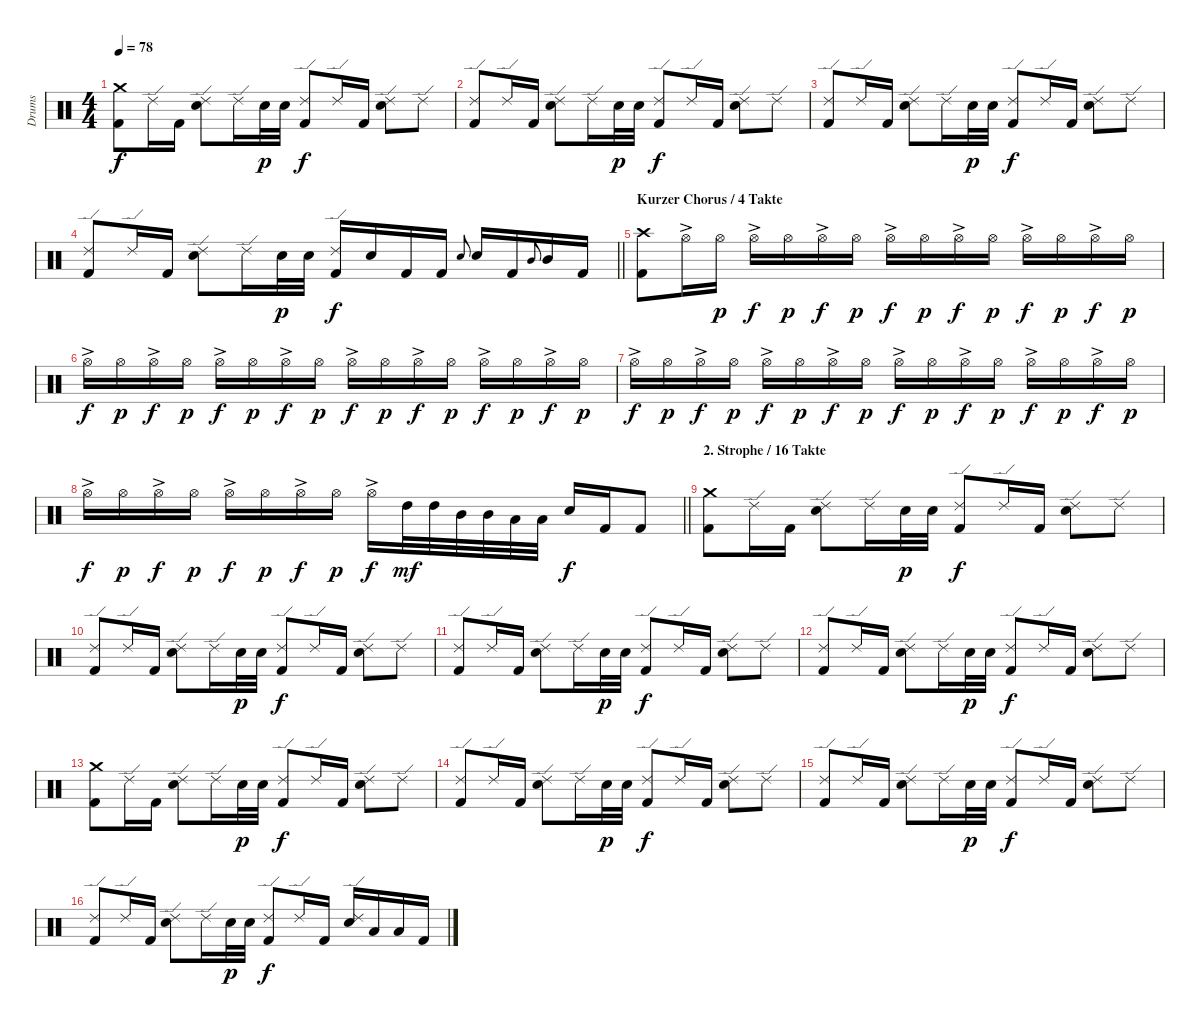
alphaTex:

\track ("Drums" "Drums") {instrument percussion}
\staff {score}
\articulation defaults
\ts (4 4)
\tempo 78
\clef neutral
\ks c
("Crash medium (hit)" "Kick (hit) 2").8{dy f} "Ride (edge) 2".16 "Kick (hit) 2".16 ("Ride (edge) 2" "Electric Snare (hit)").8 "Ride (edge) 2".16 "Electric Snare (hit)".32{dy p} "Electric Snare (hit)".32 ("Ride (edge) 2" "Kick (hit) 2").8{dy f} "Ride (edge) 2".16 "Kick (hit) 2".16 ("Ride (edge) 2" "Electric Snare (hit)").8 "Ride (edge) 2".8 |
("Ride (edge) 2" "Kick (hit) 2").8 "Ride (edge) 2".16 "Kick (hit) 2".16 ("Ride (edge) 2" "Electric Snare (hit)").8 "Ride (edge) 2".16 "Electric Snare (hit)".32{dy p} "Electric Snare (hit)".32 ("Ride (edge) 2" "Kick (hit) 2").8{dy f} "Ride (edge) 2".16 "Kick (hit) 2".16 ("Ride (edge) 2" "Electric Snare (hit)").8 "Ride (edge) 2".8 |
("Ride (edge) 2" "Kick (hit) 2").8 "Ride (edge) 2".16 "Kick (hit) 2".16 ("Ride (edge) 2" "Electric Snare (hit)").8 "Ride (edge) 2".16 "Electric Snare (hit)".32{dy p} "Electric Snare (hit)".32 ("Ride (edge) 2" "Kick (hit) 2").8{dy f} "Ride (edge) 2".16 "Kick (hit) 2".16 ("Ride (edge) 2" "Electric Snare (hit)").8 "Ride (edge) 2".8 |
\barLineRight lightlight
("Ride (edge) 2" "Kick (hit) 2").8 "Ride (edge) 2".16 "Kick (hit) 2".16 ("Ride (edge) 2" "Electric Snare (hit)").8 "Ride (edge) 2".16 "Electric Snare (hit)".32{dy p} "Electric Snare (hit)".32 ("Ride (edge) 2" "Kick (hit) 2").16{dy f} "Electric Snare (hit)".16 "Kick (hit) 2".16 "Kick (hit) 2".16 "Electric Snare (hit)".8{gr onbeat} "Electric Snare (hit)".16 "Kick (hit) 2".16 "Mid Tom (hit)".8{gr onbeat} "Mid Tom (hit)".16 "Kick (hit) 2".16 |
\section ("" "Kurzer Chorus / 4 Takte")
("Crash high (hit)" "Kick (hit) 2").8 "Hi-Hat (open)"{ac}.16 "Hi-Hat (open)".16{dy p} "Hi-Hat (open)"{ac}.16{dy f} "Hi-Hat (open)".16{dy p} "Hi-Hat (open)"{ac}.16{dy f} "Hi-Hat (open)".16{dy p} "Hi-Hat (open)"{ac}.16{dy f} "Hi-Hat (open)".16{dy p} "Hi-Hat (open)"{ac}.16{dy f} "Hi-Hat (open)".16{dy p} "Hi-Hat (open)"{ac}.16{dy f} "Hi-Hat (open)".16{dy p} "Hi-Hat (open)"{ac}.16{dy f} "Hi-Hat (open)".16{dy p} |
"Hi-Hat (open)"{ac}.16{dy f} "Hi-Hat (open)".16{dy p} "Hi-Hat (open)"{ac}.16{dy f} "Hi-Hat (open)".16{dy p} "Hi-Hat (open)"{ac}.16{dy f} "Hi-Hat (open)".16{dy p} "Hi-Hat (open)"{ac}.16{dy f} "Hi-Hat (open)".16{dy p} "Hi-Hat (open)"{ac}.16{dy f} "Hi-Hat (open)".16{dy p} "Hi-Hat (open)"{ac}.16{dy f} "Hi-Hat (open)".16{dy p} "Hi-Hat (open)"{ac}.16{dy f} "Hi-Hat (open)".16{dy p} "Hi-Hat (open)"{ac}.16{dy f} "Hi-Hat (open)".16{dy p} |
"Hi-Hat (open)"{ac}.16{dy f} "Hi-Hat (open)".16{dy p} "Hi-Hat (open)"{ac}.16{dy f} "Hi-Hat (open)".16{dy p} "Hi-Hat (open)"{ac}.16{dy f} "Hi-Hat (open)".16{dy p} "Hi-Hat (open)"{ac}.16{dy f} "Hi-Hat (open)".16{dy p} "Hi-Hat (open)"{ac}.16{dy f} "Hi-Hat (open)".16{dy p} "Hi-Hat (open)"{ac}.16{dy f} "Hi-Hat (open)".16{dy p} "Hi-Hat (open)"{ac}.16{dy f} "Hi-Hat (open)".16{dy p} "Hi-Hat (open)"{ac}.16{dy f} "Hi-Hat (open)".16{dy p} |
\barLineRight lightlight "Hi-Hat (open)"{ac}.16{dy f} "Hi-Hat (open)".16{dy p} "Hi-Hat (open)"{ac}.16{dy f} "Hi-Hat (open)".16{dy p} "Hi-Hat (open)"{ac}.16{dy f} "Hi-Hat (open)".16{dy p} "Hi-Hat (open)"{ac}.16{dy f} "Hi-Hat (open)".16{dy p} "Hi-Hat (open)"{ac}.16{dy f} "High Tom (hit)".32{dy mf} "High Tom (hit)".32 "Mid Tom (hit)".32 "Mid Tom (hit)".32 "Low Tom (hit)".32 "Low Tom (hit)".32 "Electric Snare (hit)".16{dy f} "Kick (hit) 2".16 "Kick (hit) 2".8
|
\section ("" "2. Strophe / 16 Takte")
("Crash medium (hit)" "Kick (hit) 2").8 "Ride (edge) 2".16 "Kick (hit) 2".16 ("Ride (edge) 2" "Electric Snare (hit)").8 "Ride (edge) 2".16 "Electric Snare (hit)".32{dy p} "Electric Snare (hit)".32 ("Ride (edge) 2" "Kick (hit) 2").8{dy f} "Ride (edge) 2".16 "Kick (hit) 2".16 ("Ride (edge) 2" "Electric Snare (hit)").8 "Ride (edge) 2".8 |
("Ride (edge) 2" "Kick (hit) 2").8 "Ride (edge) 2".16 "Kick (hit) 2".16 ("Ride (edge) 2" "Electric Snare (hit)").8 "Ride (edge) 2".16 "Electric Snare (hit)".32{dy p} "Electric Snare (hit)".32 ("Ride (edge) 2" "Kick (hit) 2").8{dy f} "Ride (edge) 2".16 "Kick (hit) 2".16 ("Ride (edge) 2" "Electric Snare (hit)").8 "Ride (edge) 2".8 |
("Ride (edge) 2" "Kick (hit) 2").8 "Ride (edge) 2".16 "Kick (hit) 2".16 ("Ride (edge) 2" "Electric Snare (hit)").8 "Ride (edge) 2".16 "Electric Snare (hit)".32{dy p} "Electric Snare (hit)".32 ("Ride (edge) 2" "Kick (hit) 2").8{dy f} "Ride (edge) 2".16 "Kick (hit) 2".16 ("Ride (edge) 2" "Electric Snare (hit)").8 "Ride (edge) 2".8 |
("Ride (edge) 2" "Kick (hit) 2").8 "Ride (edge) 2".16 "Kick (hit) 2".16 ("Ride (edge) 2" "Electric Snare (hit)").8 "Ride (edge) 2".16 "Electric Snare (hit)".32{dy p} "Electric Snare (hit)".32 ("Ride (edge) 2" "Kick (hit) 2").8{dy f} "Ride (edge) 2".16 "Kick (hit) 2".16 ("Ride (edge) 2" "Electric Snare (hit)").8 "Ride (edge) 2".8 |
("Crash medium (hit)" "Kick (hit) 2").8 "Ride (edge) 2".16 "Kick (hit) 2".16 ("Ride (edge) 2" "Electric Snare (hit)").8 "Ride (edge) 2".16 "Electric Snare (hit)".32{dy p} "Electric Snare (hit)".32 ("Ride (edge) 2" "Kick (hit) 2").8{dy f} "Ride (edge) 2".16 "Kick (hit) 2".16 ("Ride (edge) 2" "Electric Snare (hit)").8 "Ride (edge) 2".8 |
("Ride (edge) 2" "Kick (hit) 2").8 "Ride (edge) 2".16 "Kick (hit) 2".16 ("Ride (edge) 2" "Electric Snare (hit)").8 "Ride (edge) 2".16 "Electric Snare (hit)".32{dy p} "Electric Snare (hit)".32 ("Ride (edge) 2" "Kick (hit) 2").8{dy f} "Ride (edge) 2".16 "Kick (hit) 2".16 ("Ride (edge) 2" "Electric Snare (hit)").8 "Ride (edge) 2".8 |
("Ride (edge) 2" "Kick (hit) 2").8 "Ride (edge) 2".16 "Kick (hit) 2".16 ("Ride (edge) 2" "Electric Snare (hit)").8 "Ride (edge) 2".16 "Electric Snare (hit)".32{dy p} "Electric Snare (hit)".32 ("Ride (edge) 2" "Kick (hit) 2").8{dy f} "Ride (edge) 2".16 "Kick (hit) 2".16 ("Ride (edge) 2" "Electric Snare (hit)").8 "Ride (edge) 2".8 |
("Ride (edge) 2" "Kick (hit) 2").8 "Ride (edge) 2".16 "Kick (hit) 2".16 ("Ride (edge) 2" "Electric Snare (hit)").8 "Ride (edge) 2".16 "Electric Snare (hit)".32{dy p} "Electric Snare (hit)".32 ("Ride (edge) 2" "Kick (hit) 2").8{dy f} "Ride (edge) 2".16 "Kick (hit) 2".16 ("Ride (edge) 2" "Electric Snare (hit)").16 "Low Tom (hit)".16 "Low Tom (hit)".16 "Kick (hit) 2".16
